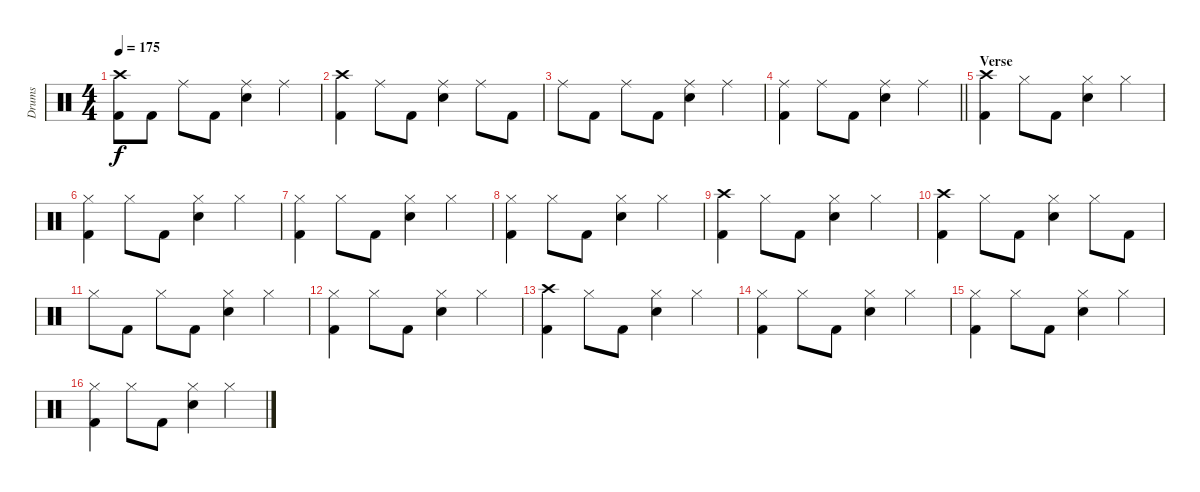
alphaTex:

\track ("Drums" "Drums") {instrument percussion}
\staff {score}
\articulation defaults
\ts (4 4)
\tempo 175
\clef neutral
\ks c
("Crash high (hit)" "Kick (hit) 2").8{dy f} "Kick (hit) 2".8 "Ride (middle)".8 "Kick (hit) 2".8 ("Ride (middle)" "Snare (hit) 2").4 "Ride (middle)".4 |
("Crash high (hit)" "Kick (hit) 2").4 "Ride (middle)".8 "Kick (hit) 2".8 ("Ride (middle)" "Snare (hit) 2").4 "Ride (middle)".8 "Kick (hit) 2".8 |
"Ride (middle)".8 "Kick (hit) 2".8 "Ride (middle)".8 "Kick (hit) 2".8 ("Ride (middle)" "Snare (hit) 2").4 "Ride (middle)".4 |
\barLineRight lightlight
("Ride (middle)" "Kick (hit) 2").4 "Ride (middle)".8 "Kick (hit) 2".8 ("Ride (middle)" "Snare (hit) 2").4 "Ride (middle)".4 |
\section ("" "Verse")
("Crash high (hit)" "Kick (hit) 2").4 "Hi-Hat (closed)".8 "Kick (hit) 2".8 ("Hi-Hat (closed)" "Snare (hit) 2").4 "Hi-Hat (closed)".4 |
("Hi-Hat (closed)" "Kick (hit) 2").4 "Hi-Hat (closed)".8 "Kick (hit) 2".8 ("Hi-Hat (closed)" "Snare (hit) 2").4 "Hi-Hat (closed)".4 |
("Hi-Hat (closed)" "Kick (hit) 2").4 "Hi-Hat (closed)".8 "Kick (hit) 2".8 ("Hi-Hat (closed)" "Snare (hit) 2").4 "Hi-Hat (closed)".4 |
("Hi-Hat (closed)" "Kick (hit) 2").4 "Hi-Hat (closed)".8 "Kick (hit) 2".8 ("Hi-Hat (closed)" "Snare (hit) 2").4 "Hi-Hat (closed)".4 |
("Crash high (hit)" "Kick (hit) 2").4 "Hi-Hat (closed)".8 "Kick (hit) 2".8 ("Hi-Hat (closed)" "Snare (hit) 2").4 "Hi-Hat (closed)".4 |
("Crash high (hit)" "Kick (hit) 2").4 "Hi-Hat (closed)".8 "Kick (hit) 2".8 ("Hi-Hat (closed)" "Snare (hit) 2").4 "Hi-Hat (closed)".8 "Kick (hit) 2".8 |
"Hi-Hat (closed)".8 "Kick (hit) 2".8 "Hi-Hat (closed)".8 "Kick (hit) 2".8 ("Hi-Hat (closed)" "Snare (hit) 2").4 "Hi-Hat (closed)".4 |
("Hi-Hat (closed)" "Kick (hit) 2").4 "Hi-Hat (closed)".8 "Kick (hit) 2".8 ("Hi-Hat (closed)" "Snare (hit) 2").4 "Hi-Hat (closed)".4 |
("Crash high (hit)" "Kick (hit) 2").4 "Hi-Hat (closed)".8 "Kick (hit) 2".8 ("Hi-Hat (closed)" "Snare (hit) 2").4 "Hi-Hat (closed)".4 |
("Hi-Hat (closed)" "Kick (hit) 2").4 "Hi-Hat (closed)".8 "Kick (hit) 2".8 ("Hi-Hat (closed)" "Snare (hit) 2").4 "Hi-Hat (closed)".4 |
("Hi-Hat (closed)" "Kick (hit) 2").4 "Hi-Hat (closed)".8 "Kick (hit) 2".8 ("Hi-Hat (closed)" "Snare (hit) 2").4 "Hi-Hat (closed)".4 |
("Hi-Hat (closed)" "Kick (hit) 2").4 "Hi-Hat (closed)".8 "Kick (hit) 2".8 ("Hi-Hat (closed)" "Snare (hit) 2").4 "Hi-Hat (closed)".4
